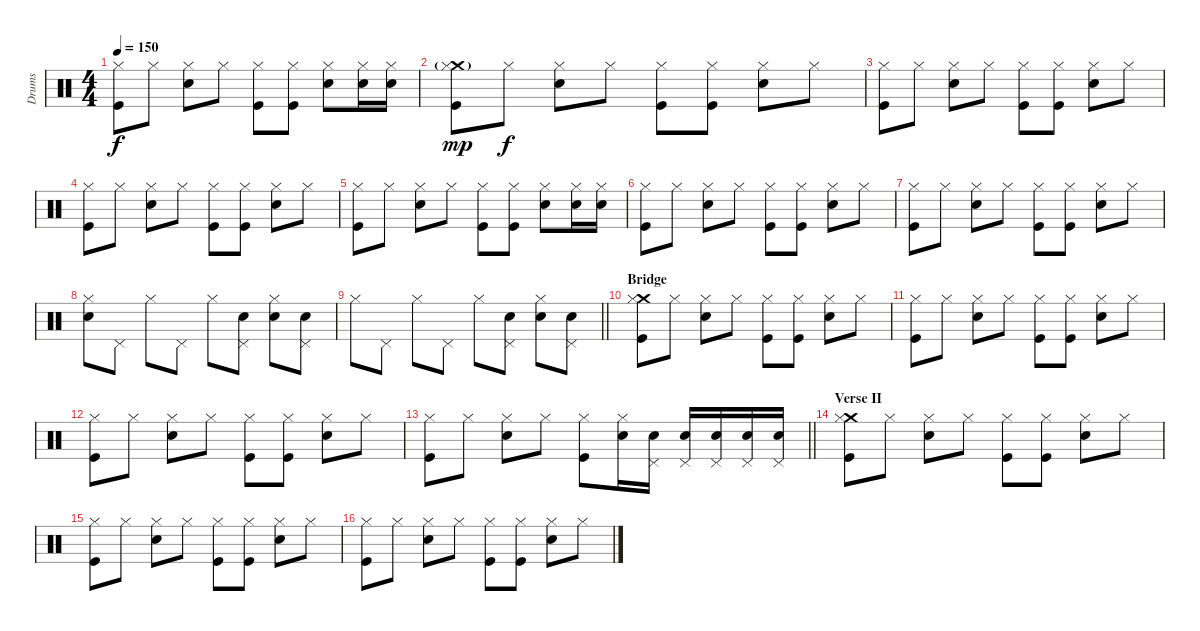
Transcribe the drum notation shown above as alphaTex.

\track ("Drums" "Drums") {instrument percussion}
\staff {score}
\articulation defaults
\ts (4 4)
\tempo 150
\clef neutral
\ks c
("Hi-Hat (closed)" "Kick (hit)").8{dy f} "Hi-Hat (closed)".8 ("Hi-Hat (closed)" "Electric Snare (hit)").8 "Hi-Hat (closed)".8 ("Hi-Hat (closed)" "Kick (hit)").8 ("Hi-Hat (closed)" "Kick (hit)").8 ("Hi-Hat (closed)" "Electric Snare (hit)").8 ("Hi-Hat (closed)" "Electric Snare (hit)").16 ("Hi-Hat (closed)" "Electric Snare (hit)").16 |
("Crash medium (hit)"{g} "Hi-Hat (closed)" "Kick (hit)").8{dy mp} "Hi-Hat (closed)".8{dy f} ("Hi-Hat (closed)" "Electric Snare (hit)").8 "Hi-Hat (closed)".8 ("Hi-Hat (closed)" "Kick (hit)").8 ("Hi-Hat (closed)" "Kick (hit)").8 ("Hi-Hat (closed)" "Electric Snare (hit)").8 "Hi-Hat (closed)".8 |
("Hi-Hat (closed)" "Kick (hit)").8 "Hi-Hat (closed)".8 ("Hi-Hat (closed)" "Electric Snare (hit)").8 "Hi-Hat (closed)".8 ("Hi-Hat (closed)" "Kick (hit)").8 ("Hi-Hat (closed)" "Kick (hit)").8 ("Hi-Hat (closed)" "Electric Snare (hit)").8 "Hi-Hat (closed)".8 |
("Hi-Hat (closed)" "Kick (hit)").8 "Hi-Hat (closed)".8 ("Hi-Hat (closed)" "Electric Snare (hit)").8 "Hi-Hat (closed)".8 ("Hi-Hat (closed)" "Kick (hit)").8 ("Hi-Hat (closed)" "Kick (hit)").8 ("Hi-Hat (closed)" "Electric Snare (hit)").8 "Hi-Hat (closed)".8 |
("Hi-Hat (closed)" "Kick (hit)").8 "Hi-Hat (closed)".8 ("Hi-Hat (closed)" "Electric Snare (hit)").8 "Hi-Hat (closed)".8 ("Hi-Hat (closed)" "Kick (hit)").8 ("Hi-Hat (closed)" "Kick (hit)").8 ("Hi-Hat (closed)" "Electric Snare (hit)").8 ("Hi-Hat (closed)" "Electric Snare (hit)").16 ("Hi-Hat (closed)" "Electric Snare (hit)").16 |
("Hi-Hat (closed)" "Kick (hit)").8 "Hi-Hat (closed)".8 ("Hi-Hat (closed)" "Electric Snare (hit)").8 "Hi-Hat (closed)".8 ("Hi-Hat (closed)" "Kick (hit)").8 ("Hi-Hat (closed)" "Kick (hit)").8 ("Hi-Hat (closed)" "Electric Snare (hit)").8 "Hi-Hat (closed)".8 |
("Hi-Hat (closed)" "Kick (hit)").8 "Hi-Hat (closed)".8 ("Hi-Hat (closed)" "Electric Snare (hit)").8 "Hi-Hat (closed)".8 ("Hi-Hat (closed)" "Kick (hit)").8 ("Hi-Hat (closed)" "Kick (hit)").8 ("Hi-Hat (closed)" "Electric Snare (hit)").8 "Hi-Hat (closed)".8 |
("Hi-Hat (closed)" "Electric Snare (hit)").8 "Pedal Hi-Hat (hit)".8 "Hi-Hat (closed)".8 "Pedal Hi-Hat (hit)".8 "Hi-Hat (closed)".8 ("Pedal Hi-Hat (hit)" "Electric Snare (hit)").8 ("Hi-Hat (closed)" "Electric Snare (hit)").8 ("Pedal Hi-Hat (hit)" "Electric Snare (hit)").8 |
\barLineRight lightlight "Hi-Hat (closed)".8 "Pedal Hi-Hat (hit)".8 "Hi-Hat (closed)".8 "Pedal Hi-Hat (hit)".8 "Hi-Hat (closed)".8
("Pedal Hi-Hat (hit)" "Electric Snare (hit)").8 ("Hi-Hat (closed)" "Electric Snare (hit)").8 ("Pedal Hi-Hat (hit)" "Electric Snare (hit)").8 |
\section ("" "Bridge")
("Crash medium (hit)" "Hi-Hat (closed)" "Kick (hit)").8 "Hi-Hat (closed)".8 ("Hi-Hat (closed)" "Electric Snare (hit)").8 "Hi-Hat (closed)".8 ("Hi-Hat (closed)" "Kick (hit)").8 ("Hi-Hat (closed)" "Kick (hit)").8 ("Hi-Hat (closed)" "Electric Snare (hit)").8 "Hi-Hat (closed)".8 |
("Hi-Hat (closed)" "Kick (hit)").8 "Hi-Hat (closed)".8 ("Hi-Hat (closed)" "Electric Snare (hit)").8 "Hi-Hat (closed)".8 ("Hi-Hat (closed)" "Kick (hit)").8 ("Hi-Hat (closed)" "Kick (hit)").8 ("Hi-Hat (closed)" "Electric Snare (hit)").8 "Hi-Hat (closed)".8 |
("Hi-Hat (closed)" "Kick (hit)").8 "Hi-Hat (closed)".8 ("Hi-Hat (closed)" "Electric Snare (hit)").8 "Hi-Hat (closed)".8 ("Hi-Hat (closed)" "Kick (hit)").8 ("Hi-Hat (closed)" "Kick (hit)").8 ("Hi-Hat (closed)" "Electric Snare (hit)").8 "Hi-Hat (closed)".8 |
\barLineRight lightlight
("Hi-Hat (closed)" "Kick (hit)").8 "Hi-Hat (closed)".8 ("Hi-Hat (closed)" "Electric Snare (hit)").8 "Hi-Hat (closed)".8 ("Hi-Hat (closed)" "Kick (hit)").8 ("Hi-Hat (closed)" "Electric Snare (hit)").16 ("Pedal Hi-Hat (hit)" "Electric Snare (hit)").16 ("Pedal Hi-Hat (hit)" "Electric Snare (hit)").16 ("Pedal Hi-Hat (hit)" "Electric Snare (hit)").16 ("Pedal Hi-Hat (hit)" "Electric Snare (hit)").16 ("Pedal Hi-Hat (hit)" "Electric Snare (hit)").16 |
\section ("" "Verse II")
("Crash medium (hit)" "Hi-Hat (closed)" "Kick (hit)").8 "Hi-Hat (closed)".8 ("Hi-Hat (closed)" "Electric Snare (hit)").8 "Hi-Hat (closed)".8 ("Hi-Hat (closed)" "Kick (hit)").8 ("Hi-Hat (closed)" "Kick (hit)").8 ("Hi-Hat (closed)" "Electric Snare (hit)").8 "Hi-Hat (closed)".8 |
("Hi-Hat (closed)" "Kick (hit)").8 "Hi-Hat (closed)".8 ("Hi-Hat (closed)" "Electric Snare (hit)").8 "Hi-Hat (closed)".8 ("Hi-Hat (closed)" "Kick (hit)").8 ("Hi-Hat (closed)" "Kick (hit)").8 ("Hi-Hat (closed)" "Electric Snare (hit)").8 "Hi-Hat (closed)".8 |
("Hi-Hat (closed)" "Kick (hit)").8 "Hi-Hat (closed)".8 ("Hi-Hat (closed)" "Electric Snare (hit)").8 "Hi-Hat (closed)".8 ("Hi-Hat (closed)" "Kick (hit)").8 ("Hi-Hat (closed)" "Kick (hit)").8 ("Hi-Hat (closed)" "Electric Snare (hit)").8 "Hi-Hat (closed)".8
